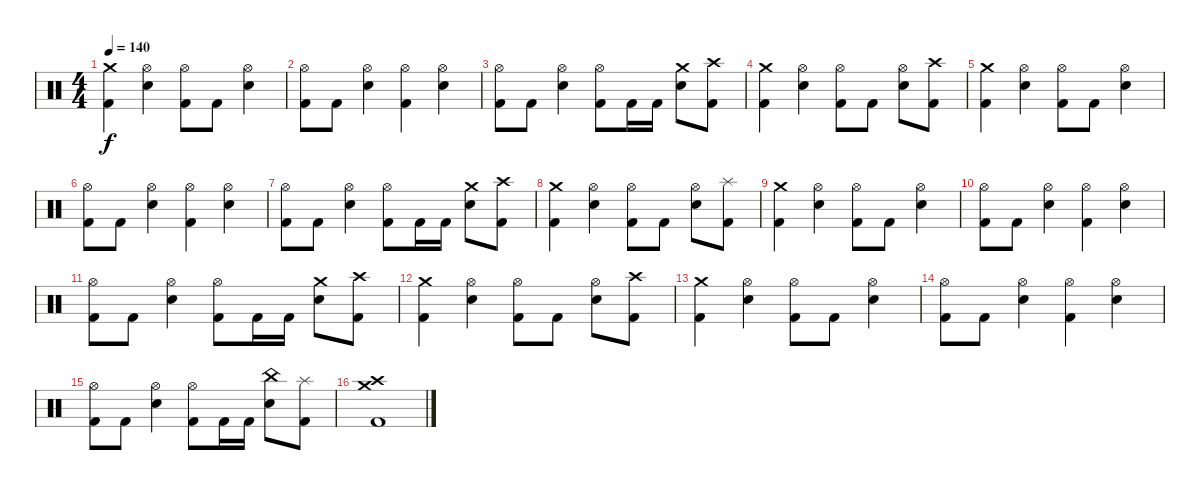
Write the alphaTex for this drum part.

\track "" {instrument percussion}
\staff {score}
\articulation defaults
\ts (4 4)
\tempo 140
\clef neutral
\ks c
("Crash medium (hit)" "Kick (hit) 2").4{dy f} ("Hi-Hat (open)" "Electric Snare (hit)").4 ("Hi-Hat (open)" "Kick (hit) 2").8 "Kick (hit) 2".8 ("Hi-Hat (open)" "Electric Snare (hit)").4 |
("Hi-Hat (open)" "Kick (hit) 2").8 "Kick (hit) 2".8 ("Hi-Hat (open)" "Electric Snare (hit)").4 ("Hi-Hat (open)" "Kick (hit) 2").4 ("Hi-Hat (open)" "Electric Snare (hit)").4 |
("Hi-Hat (open)" "Kick (hit) 2").8 "Kick (hit) 2".8 ("Hi-Hat (open)" "Electric Snare (hit)").4 ("Hi-Hat (open)" "Kick (hit) 2").8 "Kick (hit) 2".16 "Kick (hit) 2".16 ("Crash medium (hit)" "Electric Snare (hit)").8 ("Crash high (hit)" "Kick (hit) 2").8 |
("Crash medium (hit)" "Kick (hit) 2").4 ("Hi-Hat (open)" "Electric Snare (hit)").4 ("Hi-Hat (open)" "Kick (hit) 2").8 "Kick (hit) 2".8 ("Hi-Hat (open)" "Electric Snare (hit)").8 ("Crash high (hit)" "Kick (hit) 2").8 |
("Crash medium (hit)" "Kick (hit) 2").4 ("Hi-Hat (open)" "Electric Snare (hit)").4 ("Hi-Hat (open)" "Kick (hit) 2").8 "Kick (hit) 2".8 ("Hi-Hat (open)" "Electric Snare (hit)").4 |
("Hi-Hat (open)" "Kick (hit) 2").8 "Kick (hit) 2".8 ("Hi-Hat (open)" "Electric Snare (hit)").4 ("Hi-Hat (open)" "Kick (hit) 2").4 ("Hi-Hat (open)" "Electric Snare (hit)").4 |
("Hi-Hat (open)" "Kick (hit) 2").8 "Kick (hit) 2".8 ("Hi-Hat (open)" "Electric Snare (hit)").4 ("Hi-Hat (open)" "Kick (hit) 2").8 "Kick (hit) 2".16 "Kick (hit) 2".16 ("Crash medium (hit)" "Electric Snare (hit)").8 ("Crash high (hit)" "Kick (hit) 2").8 |
("Crash medium (hit)" "Kick (hit) 2").4 ("Hi-Hat (open)" "Electric Snare (hit)").4 ("Hi-Hat (open)" "Kick (hit) 2").8 "Kick (hit) 2".8 ("Hi-Hat (open)" "Electric Snare (hit)").8 ("Splash (hit)" "Kick (hit) 2").8 |
("Crash medium (hit)" "Kick (hit) 2").4 ("Hi-Hat (open)" "Electric Snare (hit)").4 ("Hi-Hat (open)" "Kick (hit) 2").8 "Kick (hit) 2".8 ("Hi-Hat (open)" "Electric Snare (hit)").4 |
("Hi-Hat (open)" "Kick (hit) 2").8 "Kick (hit) 2".8 ("Hi-Hat (open)" "Electric Snare (hit)").4 ("Hi-Hat (open)" "Kick (hit) 2").4 ("Hi-Hat (open)" "Electric Snare (hit)").4 |
("Hi-Hat (open)" "Kick (hit) 2").8 "Kick (hit) 2".8 ("Hi-Hat (open)" "Electric Snare (hit)").4 ("Hi-Hat (open)" "Kick (hit) 2").8 "Kick (hit) 2".16 "Kick (hit) 2".16 ("Crash medium (hit)" "Electric Snare (hit)").8 ("Crash high (hit)" "Kick (hit) 2").8 |
("Crash medium (hit)" "Kick (hit) 2").4 ("Hi-Hat (open)" "Electric Snare (hit)").4 ("Hi-Hat (open)" "Kick (hit) 2").8 "Kick (hit) 2".8 ("Hi-Hat (open)" "Electric Snare (hit)").8 ("Crash high (hit)" "Kick (hit) 2").8 |
("Crash medium (hit)" "Kick (hit) 2").4 ("Hi-Hat (open)" "Electric Snare (hit)").4 ("Hi-Hat (open)" "Kick (hit) 2").8 "Kick (hit) 2".8 ("Hi-Hat (open)" "Electric Snare (hit)").4 |
("Hi-Hat (open)" "Kick (hit) 2").8 "Kick (hit) 2".8 ("Hi-Hat (open)" "Electric Snare (hit)").4 ("Hi-Hat (open)" "Kick (hit) 2").4 ("Hi-Hat (open)" "Electric Snare (hit)").4 |
("Hi-Hat (open)" "Kick (hit) 2").8 "Kick (hit) 2".8 ("Hi-Hat (open)" "Electric Snare (hit)").4 ("Hi-Hat (open)" "Kick (hit) 2").8 "Kick (hit) 2".16 "Kick (hit) 2".16 ("China (hit)" "Electric Snare (hit)").8 ("Splash (hit)" "Kick (hit) 2").8 |
("Crash medium (hit)" "Crash high (hit)" "Kick (hit) 2").1
